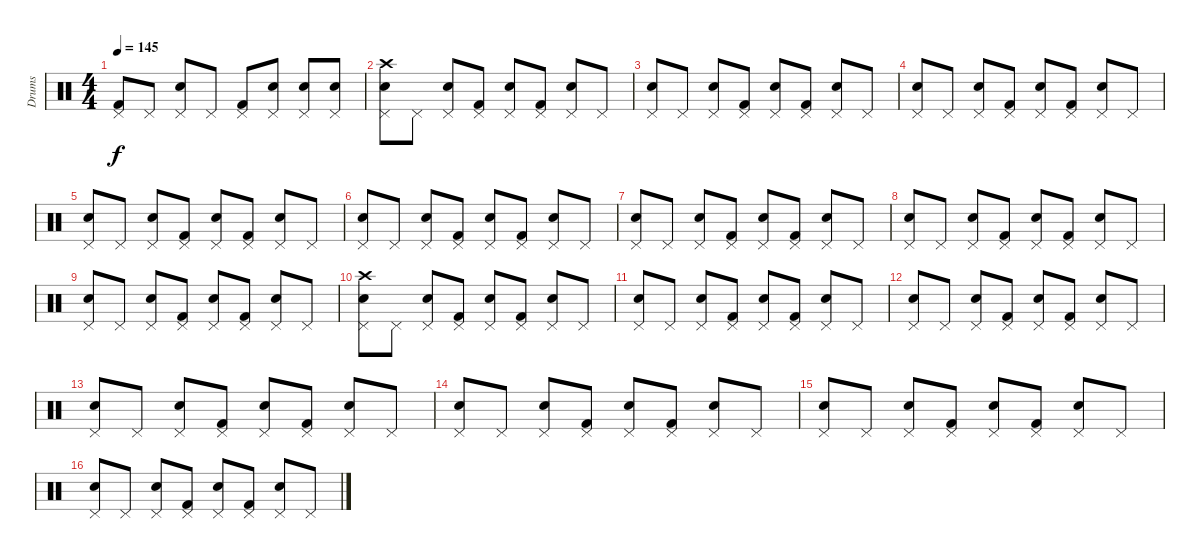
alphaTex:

\track ("Drums" "Drums") {instrument percussion}
\staff {score}
\articulation defaults
\ts (4 4)
\tempo 145
\clef neutral
\ks c
("Kick (hit) 2" "Pedal Hi-Hat (hit)").8{dy f} "Pedal Hi-Hat (hit)".8 ("Snare (hit) 2" "Pedal Hi-Hat (hit)").8 "Pedal Hi-Hat (hit)".8 ("Kick (hit) 2" "Pedal Hi-Hat (hit)").8 ("Snare (hit) 2" "Pedal Hi-Hat (hit)").8 ("Snare (hit) 2" "Pedal Hi-Hat (hit)").8 ("Snare (hit) 2" "Pedal Hi-Hat (hit)").8 |
("Crash high (hit)" "Snare (hit) 2" "Pedal Hi-Hat (hit)").8 "Pedal Hi-Hat (hit)".8 ("Snare (hit) 2" "Pedal Hi-Hat (hit)").8 ("Kick (hit) 2" "Pedal Hi-Hat (hit)").8 ("Snare (hit) 2" "Pedal Hi-Hat (hit)").8 ("Kick (hit) 2" "Pedal Hi-Hat (hit)").8 ("Snare (hit) 2" "Pedal Hi-Hat (hit)").8 "Pedal Hi-Hat (hit)".8 |
("Snare (hit) 2" "Pedal Hi-Hat (hit)").8 "Pedal Hi-Hat (hit)".8 ("Snare (hit) 2" "Pedal Hi-Hat (hit)").8 ("Kick (hit) 2" "Pedal Hi-Hat (hit)").8 ("Snare (hit) 2" "Pedal Hi-Hat (hit)").8 ("Kick (hit) 2" "Pedal Hi-Hat (hit)").8 ("Snare (hit) 2" "Pedal Hi-Hat (hit)").8 "Pedal Hi-Hat (hit)".8 |
("Snare (hit) 2" "Pedal Hi-Hat (hit)").8 "Pedal Hi-Hat (hit)".8 ("Snare (hit) 2" "Pedal Hi-Hat (hit)").8 ("Kick (hit) 2" "Pedal Hi-Hat (hit)").8 ("Snare (hit) 2" "Pedal Hi-Hat (hit)").8 ("Kick (hit) 2" "Pedal Hi-Hat (hit)").8 ("Snare (hit) 2" "Pedal Hi-Hat (hit)").8 "Pedal Hi-Hat (hit)".8 |
("Snare (hit) 2" "Pedal Hi-Hat (hit)").8 "Pedal Hi-Hat (hit)".8 ("Snare (hit) 2" "Pedal Hi-Hat (hit)").8 ("Kick (hit) 2" "Pedal Hi-Hat (hit)").8 ("Snare (hit) 2" "Pedal Hi-Hat (hit)").8 ("Kick (hit) 2" "Pedal Hi-Hat (hit)").8 ("Snare (hit) 2" "Pedal Hi-Hat (hit)").8 "Pedal Hi-Hat (hit)".8 |
("Snare (hit) 2" "Pedal Hi-Hat (hit)").8 "Pedal Hi-Hat (hit)".8 ("Snare (hit) 2" "Pedal Hi-Hat (hit)").8 ("Kick (hit) 2" "Pedal Hi-Hat (hit)").8 ("Snare (hit) 2" "Pedal Hi-Hat (hit)").8 ("Kick (hit) 2" "Pedal Hi-Hat (hit)").8 ("Snare (hit) 2" "Pedal Hi-Hat (hit)").8 "Pedal Hi-Hat (hit)".8 |
("Snare (hit) 2" "Pedal Hi-Hat (hit)").8 "Pedal Hi-Hat (hit)".8 ("Snare (hit) 2" "Pedal Hi-Hat (hit)").8 ("Kick (hit) 2" "Pedal Hi-Hat (hit)").8 ("Snare (hit) 2" "Pedal Hi-Hat (hit)").8 ("Kick (hit) 2" "Pedal Hi-Hat (hit)").8 ("Snare (hit) 2" "Pedal Hi-Hat (hit)").8 "Pedal Hi-Hat (hit)".8 |
("Snare (hit) 2" "Pedal Hi-Hat (hit)").8 "Pedal Hi-Hat (hit)".8 ("Snare (hit) 2" "Pedal Hi-Hat (hit)").8 ("Kick (hit) 2" "Pedal Hi-Hat (hit)").8 ("Snare (hit) 2" "Pedal Hi-Hat (hit)").8 ("Kick (hit) 2" "Pedal Hi-Hat (hit)").8 ("Snare (hit) 2" "Pedal Hi-Hat (hit)").8 "Pedal Hi-Hat (hit)".8 |
("Snare (hit) 2" "Pedal Hi-Hat (hit)").8 "Pedal Hi-Hat (hit)".8 ("Snare (hit) 2" "Pedal Hi-Hat (hit)").8 ("Kick (hit) 2" "Pedal Hi-Hat (hit)").8 ("Snare (hit) 2" "Pedal Hi-Hat (hit)").8 ("Kick (hit) 2" "Pedal Hi-Hat (hit)").8 ("Snare (hit) 2" "Pedal Hi-Hat (hit)").8 "Pedal Hi-Hat (hit)".8 |
("Crash high (hit)" "Snare (hit) 2" "Pedal Hi-Hat (hit)").8 "Pedal Hi-Hat (hit)".8 ("Snare (hit) 2" "Pedal Hi-Hat (hit)").8 ("Kick (hit) 2" "Pedal Hi-Hat (hit)").8 ("Snare (hit) 2" "Pedal Hi-Hat (hit)").8 ("Kick (hit) 2" "Pedal Hi-Hat (hit)").8 ("Snare (hit) 2" "Pedal Hi-Hat (hit)").8 "Pedal Hi-Hat (hit)".8 |
("Snare (hit) 2" "Pedal Hi-Hat (hit)").8 "Pedal Hi-Hat (hit)".8 ("Snare (hit) 2" "Pedal Hi-Hat (hit)").8 ("Kick (hit) 2" "Pedal Hi-Hat (hit)").8 ("Snare (hit) 2" "Pedal Hi-Hat (hit)").8 ("Kick (hit) 2" "Pedal Hi-Hat (hit)").8 ("Snare (hit) 2" "Pedal Hi-Hat (hit)").8 "Pedal Hi-Hat (hit)".8 |
("Snare (hit) 2" "Pedal Hi-Hat (hit)").8 "Pedal Hi-Hat (hit)".8 ("Snare (hit) 2" "Pedal Hi-Hat (hit)").8 ("Kick (hit) 2" "Pedal Hi-Hat (hit)").8 ("Snare (hit) 2" "Pedal Hi-Hat (hit)").8 ("Kick (hit) 2" "Pedal Hi-Hat (hit)").8 ("Snare (hit) 2" "Pedal Hi-Hat (hit)").8 "Pedal Hi-Hat (hit)".8 |
("Snare (hit) 2" "Pedal Hi-Hat (hit)").8 "Pedal Hi-Hat (hit)".8 ("Snare (hit) 2" "Pedal Hi-Hat (hit)").8 ("Kick (hit) 2" "Pedal Hi-Hat (hit)").8 ("Snare (hit) 2" "Pedal Hi-Hat (hit)").8 ("Kick (hit) 2" "Pedal Hi-Hat (hit)").8 ("Snare (hit) 2" "Pedal Hi-Hat (hit)").8 "Pedal Hi-Hat (hit)".8 |
("Snare (hit) 2" "Pedal Hi-Hat (hit)").8 "Pedal Hi-Hat (hit)".8 ("Snare (hit) 2" "Pedal Hi-Hat (hit)").8 ("Kick (hit) 2" "Pedal Hi-Hat (hit)").8 ("Snare (hit) 2" "Pedal Hi-Hat (hit)").8 ("Kick (hit) 2" "Pedal Hi-Hat (hit)").8 ("Snare (hit) 2" "Pedal Hi-Hat (hit)").8 "Pedal Hi-Hat (hit)".8 |
("Snare (hit) 2" "Pedal Hi-Hat (hit)").8 "Pedal Hi-Hat (hit)".8 ("Snare (hit) 2" "Pedal Hi-Hat (hit)").8 ("Kick (hit) 2" "Pedal Hi-Hat (hit)").8 ("Snare (hit) 2" "Pedal Hi-Hat (hit)").8 ("Kick (hit) 2" "Pedal Hi-Hat (hit)").8 ("Snare (hit) 2" "Pedal Hi-Hat (hit)").8 "Pedal Hi-Hat (hit)".8 |
("Snare (hit) 2" "Pedal Hi-Hat (hit)").8 "Pedal Hi-Hat (hit)".8 ("Snare (hit) 2" "Pedal Hi-Hat (hit)").8 ("Kick (hit) 2" "Pedal Hi-Hat (hit)").8 ("Snare (hit) 2" "Pedal Hi-Hat (hit)").8 ("Kick (hit) 2" "Pedal Hi-Hat (hit)").8 ("Snare (hit) 2" "Pedal Hi-Hat (hit)").8 "Pedal Hi-Hat (hit)".8
